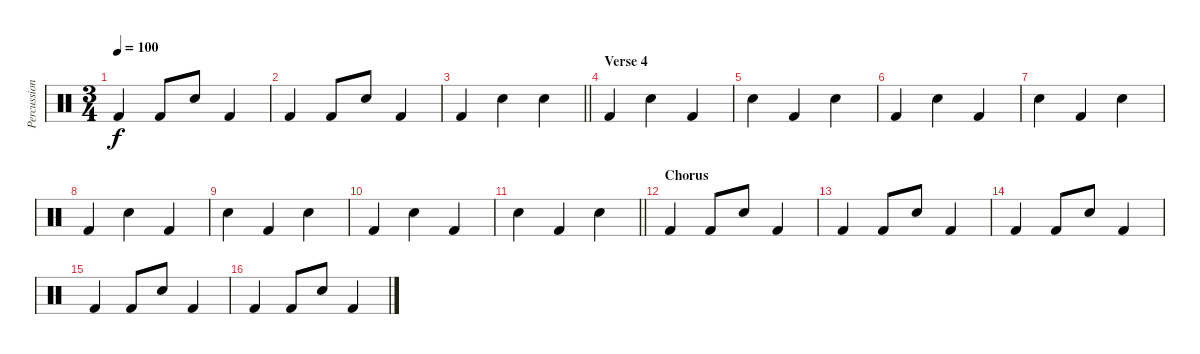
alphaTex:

\track ("Percussion" "Percussion") {instrument percussion}
\staff {score}
\articulation defaults
\ts (3 4)
\tempo 100
\clef neutral
\ks c "Kick (hit) 2".4{dy f} "Kick (hit) 2".8 "Snare (hit) 2".8 "Kick (hit) 2".4
|
"Kick (hit) 2".4 "Kick (hit) 2".8 "Snare (hit) 2".8 "Kick (hit) 2".4 |
\barLineRight lightlight "Kick (hit) 2".4 "Snare (hit) 2".4 "Snare (hit) 2".4
|
\section ("" "Verse 4")
"Kick (hit) 2".4 "Snare (hit) 2".4 "Kick (hit) 2".4 |
"Snare (hit) 2".4 "Kick (hit) 2".4 "Snare (hit) 2".4 |
"Kick (hit) 2".4 "Snare (hit) 2".4 "Kick (hit) 2".4 |
"Snare (hit) 2".4 "Kick (hit) 2".4 "Snare (hit) 2".4 |
"Kick (hit) 2".4 "Snare (hit) 2".4 "Kick (hit) 2".4 |
"Snare (hit) 2".4 "Kick (hit) 2".4 "Snare (hit) 2".4 |
"Kick (hit) 2".4 "Snare (hit) 2".4 "Kick (hit) 2".4 |
\barLineRight lightlight "Snare (hit) 2".4 "Kick (hit) 2".4 "Snare (hit) 2".4
|
\section ("" "Chorus")
"Kick (hit) 2".4 "Kick (hit) 2".8 "Snare (hit) 2".8 "Kick (hit) 2".4 |
"Kick (hit) 2".4 "Kick (hit) 2".8 "Snare (hit) 2".8 "Kick (hit) 2".4 |
"Kick (hit) 2".4 "Kick (hit) 2".8 "Snare (hit) 2".8 "Kick (hit) 2".4 |
"Kick (hit) 2".4 "Kick (hit) 2".8 "Snare (hit) 2".8 "Kick (hit) 2".4 |
"Kick (hit) 2".4 "Kick (hit) 2".8 "Snare (hit) 2".8 "Kick (hit) 2".4
